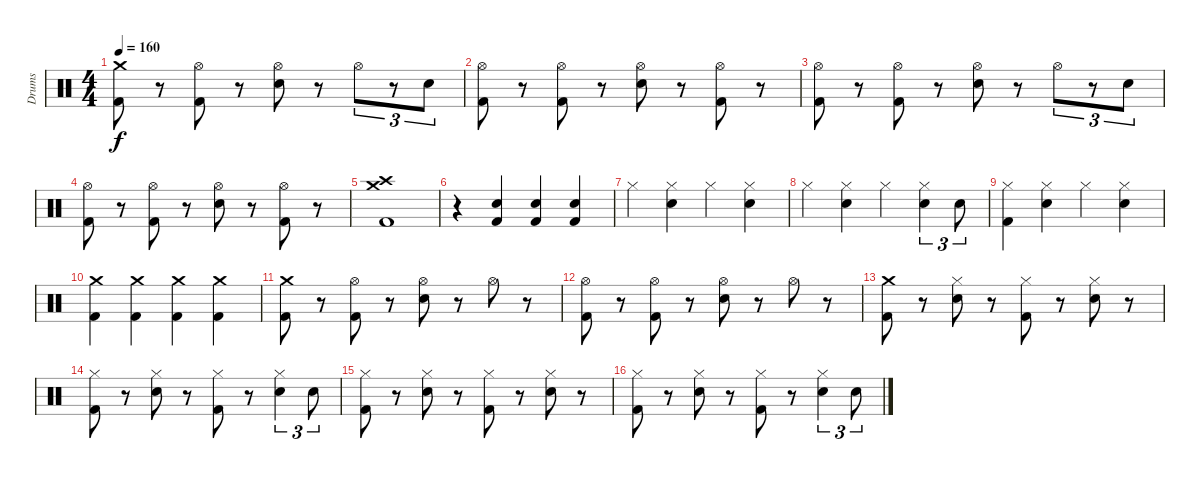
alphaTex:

\track ("Drums" "Drums") {instrument percussion}
\staff {score}
\articulation defaults
\ts (4 4)
\tempo 160
\clef neutral
\ks c
("Crash medium (hit)" "Kick (hit) 2").8{dy f} r.8 ("Hi-Hat (open)" "Kick (hit) 2").8 r.8 ("Hi-Hat (open)" "Electric Snare (hit)").8 r.8 "Hi-Hat (open)".8{tu (3 2)} r.8{tu (3 2)} "Electric Snare (hit)".8{tu (3 2)} |
("Hi-Hat (open)" "Kick (hit) 2").8 r.8 ("Hi-Hat (open)" "Kick (hit) 2").8 r.8 ("Hi-Hat (open)" "Electric Snare (hit)").8 r.8 ("Hi-Hat (open)" "Kick (hit) 2").8 r.8 |
("Hi-Hat (open)" "Kick (hit) 2").8 r.8 ("Hi-Hat (open)" "Kick (hit) 2").8 r.8 ("Hi-Hat (open)" "Electric Snare (hit)").8 r.8 "Hi-Hat (open)".8{tu (3 2)} r.8{tu (3 2)} "Electric Snare (hit)".8{tu (3 2)} |
("Hi-Hat (open)" "Kick (hit) 2").8 r.8 ("Hi-Hat (open)" "Kick (hit) 2").8 r.8 ("Hi-Hat (open)" "Electric Snare (hit)").8 r.8 ("Hi-Hat (open)" "Kick (hit) 2").8 r.8 |
("Crash medium (hit)" "Crash high (hit)" "Kick (hit) 2").1 |
r.4 ("Electric Snare (hit)" "Kick (hit) 2").4 ("Electric Snare (hit)" "Kick (hit) 2").4 ("Electric Snare (hit)" "Kick (hit) 2").4 |
"Hi-Hat (closed)".4 ("Hi-Hat (closed)" "Electric Snare (hit)").4 "Hi-Hat (closed)".4 ("Hi-Hat (closed)" "Electric Snare (hit)").4 |
"Hi-Hat (closed)".4 ("Hi-Hat (closed)" "Electric Snare (hit)").4 "Hi-Hat (closed)".4 ("Hi-Hat (closed)" "Electric Snare (hit)").4{tu (3 2)} "Electric Snare (hit)".8{tu (3 2)} |
("Hi-Hat (closed)" "Kick (hit) 2").4 ("Hi-Hat (closed)" "Electric Snare (hit)").4 "Hi-Hat (closed)".4 ("Hi-Hat (closed)" "Electric Snare (hit)").4 |
("Crash medium (hit)" "Kick (hit) 2").4 ("Crash medium (hit)" "Kick (hit) 2").4 ("Crash medium (hit)" "Kick (hit) 2").4 ("Crash medium (hit)" "Kick (hit) 2").4 |
("Crash medium (hit)" "Kick (hit) 2").8 r.8 ("Hi-Hat (open)" "Kick (hit) 2").8 r.8 ("Hi-Hat (open)" "Electric Snare (hit)").8 r.8 "Hi-Hat (open)".8 r.8 |
("Hi-Hat (open)" "Kick (hit) 2").8 r.8 ("Hi-Hat (open)" "Kick (hit) 2").8 r.8 ("Hi-Hat (open)" "Electric Snare (hit)").8 r.8 "Hi-Hat (open)".8 r.8 |
("Crash medium (hit)" "Kick (hit) 2").8 r.8 ("Hi-Hat (closed)" "Electric Snare (hit)").8 r.8 ("Hi-Hat (closed)" "Kick (hit) 2").8 r.8 ("Hi-Hat (closed)" "Electric Snare (hit)").8 r.8 |
("Hi-Hat (closed)" "Kick (hit) 2").8 r.8 ("Hi-Hat (closed)" "Electric Snare (hit)").8 r.8 ("Hi-Hat (closed)" "Kick (hit) 2").8 r.8 ("Hi-Hat (closed)" "Electric Snare (hit)").4{tu (3 2)} "Electric Snare (hit)".8{tu (3 2)} |
("Hi-Hat (closed)" "Kick (hit) 2").8 r.8 ("Hi-Hat (closed)" "Electric Snare (hit)").8 r.8 ("Hi-Hat (closed)" "Kick (hit) 2").8 r.8 ("Hi-Hat (closed)" "Electric Snare (hit)").8 r.8 |
("Hi-Hat (closed)" "Kick (hit) 2").8 r.8 ("Hi-Hat (closed)" "Electric Snare (hit)").8 r.8 ("Hi-Hat (closed)" "Kick (hit) 2").8 r.8 ("Hi-Hat (closed)" "Electric Snare (hit)").4{tu (3 2)} "Electric Snare (hit)".8{tu (3 2)}
